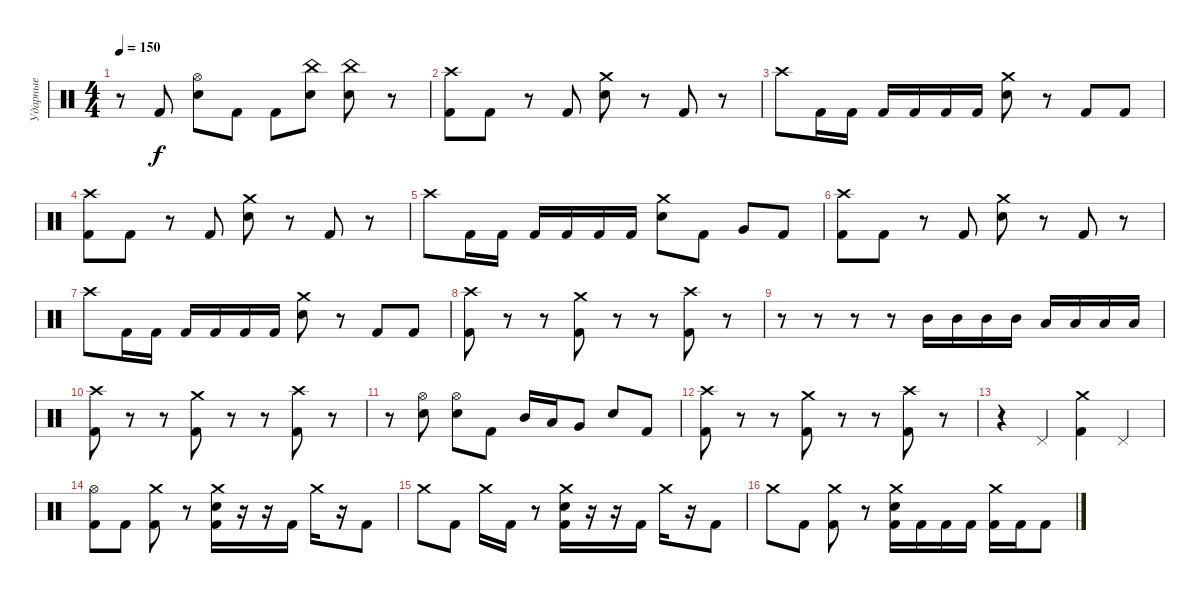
\track ("Ударные" "Ударные") {instrument percussion}
\staff {score}
\articulation defaults
\ts (4 4)
\tempo 150
\clef neutral
\ks c
r.8{dy f} "Kick (hit) 2".8 ("Hi-Hat (open)" "Electric Snare (hit)").8 "Kick (hit) 2".8 "Kick (hit) 2".8 ("China (hit)" "Electric Snare (hit)").8 ("China (hit)" "Electric Snare (hit)").8 r.8 |
("Crash high (hit)" "Kick (hit) 2").8 "Kick (hit) 2".8 r.8 "Kick (hit) 2".8 ("Crash medium (hit)" "Electric Snare (hit)").8 r.8 "Kick (hit) 2".8 r.8 |
"Crash high (hit)".8 "Kick (hit) 2".16 "Kick (hit) 2".16 "Kick (hit) 2".16 "Kick (hit) 2".16 "Kick (hit) 2".16 "Kick (hit) 2".16 ("Crash medium (hit)" "Electric Snare (hit)").8 r.8 "Kick (hit) 2".8 "Kick (hit) 2".8 |
("Crash high (hit)" "Kick (hit) 2").8 "Kick (hit) 2".8 r.8 "Kick (hit) 2".8 ("Crash medium (hit)" "Electric Snare (hit)").8 r.8 "Kick (hit) 2".8 r.8 |
"Crash high (hit)".8 "Kick (hit) 2".16 "Kick (hit) 2".16 "Kick (hit) 2".16 "Kick (hit) 2".16 "Kick (hit) 2".16 "Kick (hit) 2".16 ("Crash medium (hit)" "Electric Snare (hit)").8 "Kick (hit) 2".8 "Very Low Tom (hit)".8 "Kick (hit) 2".8 |
("Crash high (hit)" "Kick (hit) 2").8 "Kick (hit) 2".8 r.8 "Kick (hit) 2".8 ("Crash medium (hit)" "Electric Snare (hit)").8 r.8 "Kick (hit) 2".8 r.8 |
"Crash high (hit)".8 "Kick (hit) 2".16 "Kick (hit) 2".16 "Kick (hit) 2".16 "Kick (hit) 2".16 "Kick (hit) 2".16 "Kick (hit) 2".16 ("Crash medium (hit)" "Electric Snare (hit)").8 r.8 "Kick (hit) 2".8 "Kick (hit) 2".8 |
("Crash high (hit)" "Kick (hit) 2").8 r.8 r.8 ("Crash medium (hit)" "Kick (hit) 2").8 r.8 r.8 ("Crash high (hit)" "Kick (hit) 2").8 r.8 |
r.8 r.8 r.8 r.8 "Mid Tom (hit)".16 "Mid Tom (hit)".16 "Mid Tom (hit)".16 "Mid Tom (hit)".16 "Low Tom (hit)".16 "Low Tom (hit)".16 "Low Tom (hit)".16 "Low Tom (hit)".16 |
("Crash high (hit)" "Kick (hit) 2").8 r.8 r.8 ("Crash medium (hit)" "Kick (hit) 2").8 r.8 r.8 ("Crash high (hit)" "Kick (hit) 2").8 r.8 |
r.8 ("Hi-Hat (open)" "Electric Snare (hit)").8 ("Hi-Hat (open)" "Electric Snare (hit)").8 "Kick (hit) 2".8 "Mid Tom (hit)".16 "Low Tom (hit)".16 "Very Low Tom (hit)".8 "Electric Snare (hit)".8 "Kick (hit) 2".8 |
("Crash high (hit)" "Kick (hit) 2").8 r.8 r.8 ("Crash medium (hit)" "Kick (hit) 2").8 r.8 r.8 ("Crash high (hit)" "Kick (hit) 2").8 r.8 |
r.4 "Pedal Hi-Hat (hit)".4 ("Crash medium (hit)" "Kick (hit) 2").4 "Pedal Hi-Hat (hit)".4 |
("Hi-Hat (open)" "Kick (hit) 2").8 "Kick (hit) 2".8 ("Crash medium (hit)" "Kick (hit) 2").8 r.8 ("Crash medium (hit)" "Electric Snare (hit)" "Kick (hit) 2").16 r.16 r.16 "Kick (hit) 2".16 "Crash medium (hit)".16 r.16 "Kick (hit) 2".8 |
"Crash medium (hit)".8 "Kick (hit) 2".8 "Crash medium (hit)".16 "Kick (hit) 2".16 r.8 ("Crash medium (hit)" "Electric Snare (hit)" "Kick (hit) 2").16 r.16 r.16 "Kick (hit) 2".16 "Crash medium (hit)".16 r.16 "Kick (hit) 2".8 |
"Crash medium (hit)".8 "Kick (hit) 2".8 ("Crash medium (hit)" "Kick (hit) 2").8 r.8 ("Crash medium (hit)" "Electric Snare (hit)" "Kick (hit) 2").16 "Kick (hit) 2".16 "Kick (hit) 2".16 "Kick (hit) 2".16 ("Crash medium (hit)" "Kick (hit) 2").16 "Kick (hit) 2".16 "Kick (hit) 2".8
